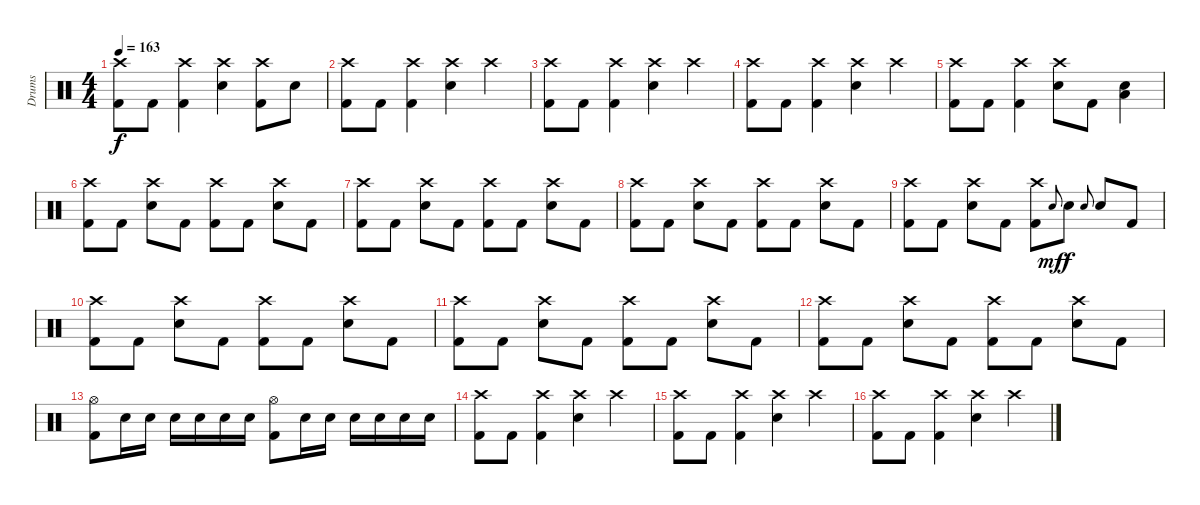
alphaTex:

\track ("Drums" "Drums") {instrument percussion}
\staff {score}
\articulation defaults
\ts (4 4)
\tempo 163
\clef neutral
\ks c
("Crash high (hit)" "Kick (hit) 2").8{dy f} "Kick (hit) 2".8 ("Crash high (hit)" "Kick (hit) 2").4 ("Crash high (hit)" "Electric Snare (hit)").4 ("Crash high (hit)" "Kick (hit) 2").8 "Electric Snare (hit)".8 |
("Crash high (hit)" "Kick (hit) 2").8 "Kick (hit) 2".8 ("Crash high (hit)" "Kick (hit) 2").4 ("Crash high (hit)" "Electric Snare (hit)").4 "Crash high (hit)".4 |
("Crash high (hit)" "Kick (hit) 2").8 "Kick (hit) 2".8 ("Crash high (hit)" "Kick (hit) 2").4 ("Crash high (hit)" "Electric Snare (hit)").4 "Crash high (hit)".4 |
("Crash high (hit)" "Kick (hit) 2").8 "Kick (hit) 2".8 ("Crash high (hit)" "Kick (hit) 2").4 ("Crash high (hit)" "Electric Snare (hit)").4 "Crash high (hit)".4 |
("Crash high (hit)" "Kick (hit) 2").8 "Kick (hit) 2".8 ("Crash high (hit)" "Kick (hit) 2").4 ("Crash high (hit)" "Electric Snare (hit)").8 "Kick (hit) 2".8 ("Low Floor Tom (hit)" "Electric Snare (hit)").4 |
("Crash high (hit)" "Kick (hit) 2").8 "Kick (hit) 2".8 ("Crash high (hit)" "Electric Snare (hit)").8 "Kick (hit) 2".8 ("Crash high (hit)" "Kick (hit) 2").8 "Kick (hit) 2".8 ("Crash high (hit)" "Electric Snare (hit)").8 "Kick (hit) 2".8 |
("Crash high (hit)" "Kick (hit) 2").8 "Kick (hit) 2".8 ("Crash high (hit)" "Electric Snare (hit)").8 "Kick (hit) 2".8 ("Crash high (hit)" "Kick (hit) 2").8 "Kick (hit) 2".8 ("Crash high (hit)" "Electric Snare (hit)").8 "Kick (hit) 2".8 |
("Crash high (hit)" "Kick (hit) 2").8 "Kick (hit) 2".8 ("Crash high (hit)" "Electric Snare (hit)").8 "Kick (hit) 2".8 ("Crash high (hit)" "Kick (hit) 2").8 "Kick (hit) 2".8 ("Crash high (hit)" "Electric Snare (hit)").8 "Kick (hit) 2".8 |
("Crash high (hit)" "Kick (hit) 2").8 "Kick (hit) 2".8 ("Crash high (hit)" "Electric Snare (hit)").8 "Kick (hit) 2".8 ("Crash high (hit)" "Kick (hit) 2").8 "Electric Snare (hit)".8{gr onbeat dy mf} "Electric Snare (hit)".8{dy f} "Electric Snare (hit)".8{gr onbeat} "Electric Snare (hit)".8 "Kick (hit) 2".8 |
("Crash high (hit)" "Kick (hit) 2").8 "Kick (hit) 2".8 ("Crash high (hit)" "Electric Snare (hit)").8 "Kick (hit) 2".8 ("Crash high (hit)" "Kick (hit) 2").8 "Kick (hit) 2".8 ("Crash high (hit)" "Electric Snare (hit)").8 "Kick (hit) 2".8 |
("Crash high (hit)" "Kick (hit) 2").8 "Kick (hit) 2".8 ("Crash high (hit)" "Electric Snare (hit)").8 "Kick (hit) 2".8 ("Crash high (hit)" "Kick (hit) 2").8 "Kick (hit) 2".8 ("Crash high (hit)" "Electric Snare (hit)").8 "Kick (hit) 2".8 |
("Crash high (hit)" "Kick (hit) 2").8 "Kick (hit) 2".8 ("Crash high (hit)" "Electric Snare (hit)").8 "Kick (hit) 2".8 ("Crash high (hit)" "Kick (hit) 2").8 "Kick (hit) 2".8 ("Crash high (hit)" "Electric Snare (hit)").8 "Kick (hit) 2".8 |
("Hi-Hat (open)" "Kick (hit) 2").8 "Electric Snare (hit)".16 "Electric Snare (hit)".16 "Electric Snare (hit)".16 "Electric Snare (hit)".16 "Electric Snare (hit)".16 "Electric Snare (hit)".16 ("Hi-Hat (open)" "Kick (hit) 2").8 "Electric Snare (hit)".16 "Electric Snare (hit)".16 "Electric Snare (hit)".16 "Electric Snare (hit)".16 "Electric Snare (hit)".16 "Electric Snare (hit)".16 |
("Crash high (hit)" "Kick (hit) 2").8 "Kick (hit) 2".8 ("Crash high (hit)" "Kick (hit) 2").4 ("Crash high (hit)" "Electric Snare (hit)").4 "Crash high (hit)".4 |
("Crash high (hit)" "Kick (hit) 2").8 "Kick (hit) 2".8 ("Crash high (hit)" "Kick (hit) 2").4 ("Crash high (hit)" "Electric Snare (hit)").4 "Crash high (hit)".4 |
("Crash high (hit)" "Kick (hit) 2").8 "Kick (hit) 2".8 ("Crash high (hit)" "Kick (hit) 2").4 ("Crash high (hit)" "Electric Snare (hit)").4 "Crash high (hit)".4
